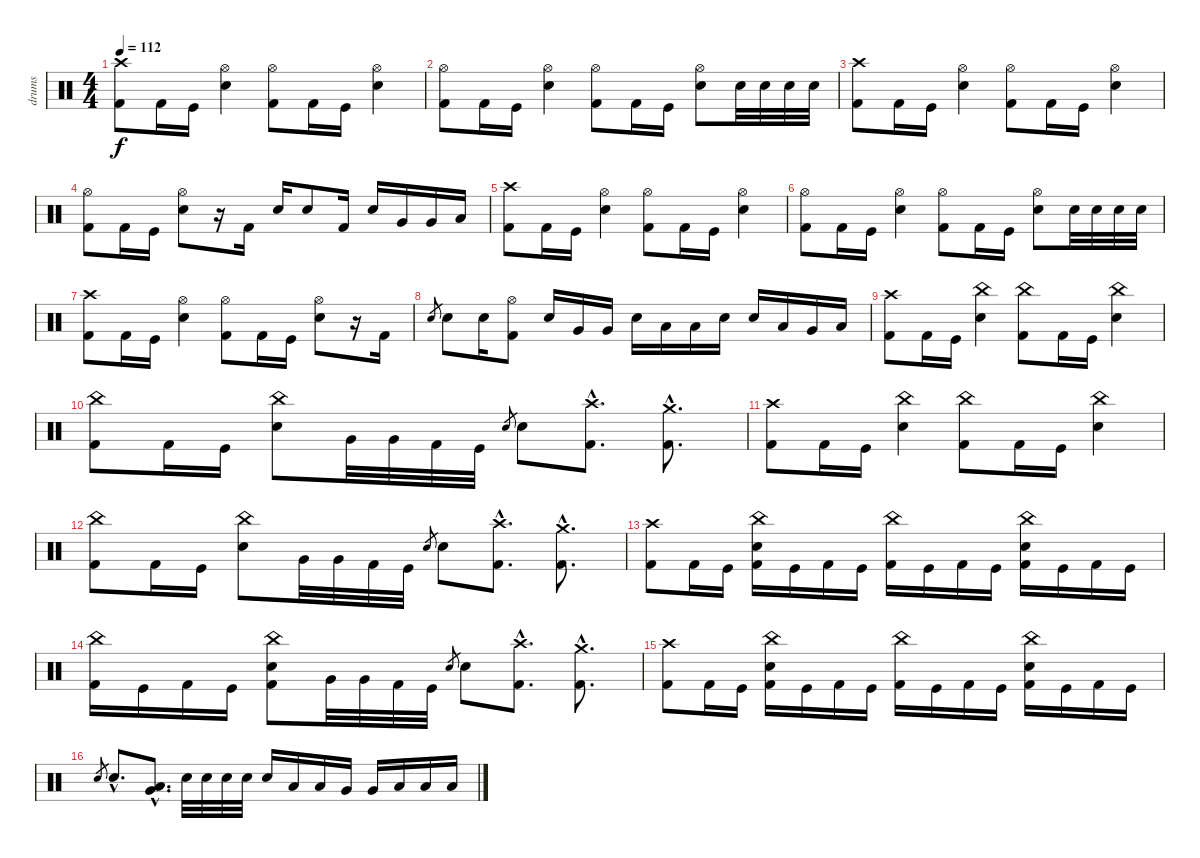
\track ("drums" "drums") {instrument percussion}
\staff {score}
\articulation defaults
\ts (4 4)
\tempo 112
\clef neutral
\ks c
("Crash high (hit)" "Kick (hit) 2").8{dy f} "Kick (hit) 2".16 "Kick (hit)".16 ("Hi-Hat (open)" "Electric Snare (hit)").4 ("Hi-Hat (open)" "Kick (hit) 2").8 "Kick (hit) 2".16 "Kick (hit)".16 ("Hi-Hat (open)" "Electric Snare (hit)").4 |
("Hi-Hat (open)" "Kick (hit) 2").8 "Kick (hit) 2".16 "Kick (hit)".16 ("Hi-Hat (open)" "Electric Snare (hit)").4 ("Hi-Hat (open)" "Kick (hit) 2").8 "Kick (hit) 2".16 "Kick (hit)".16 ("Hi-Hat (open)" "Electric Snare (hit)").8 "Electric Snare (hit)".32 "Electric Snare (hit)".32 "Electric Snare (hit)".32 "Electric Snare (hit)".32 |
("Crash high (hit)" "Kick (hit) 2").8 "Kick (hit) 2".16 "Kick (hit)".16 ("Hi-Hat (open)" "Electric Snare (hit)").4 ("Hi-Hat (open)" "Kick (hit) 2").8 "Kick (hit) 2".16 "Kick (hit)".16 ("Hi-Hat (open)" "Electric Snare (hit)").4 |
("Hi-Hat (open)" "Kick (hit) 2").8 "Kick (hit) 2".16 "Kick (hit)".16 ("Hi-Hat (open)" "Electric Snare (hit)").8 r.16 "Kick (hit) 2".16 "Electric Snare (hit)".16 "Electric Snare (hit)".8 "Kick (hit) 2".16 "Electric Snare (hit)".16 "Very Low Tom (hit)".16 "Very Low Tom (hit)".16 "Low Floor Tom (hit)".16 |
("Crash high (hit)" "Kick (hit) 2").8 "Kick (hit) 2".16 "Kick (hit)".16 ("Hi-Hat (open)" "Electric Snare (hit)").4 ("Hi-Hat (open)" "Kick (hit) 2").8 "Kick (hit) 2".16 "Kick (hit)".16 ("Hi-Hat (open)" "Electric Snare (hit)").4 |
("Hi-Hat (open)" "Kick (hit) 2").8 "Kick (hit) 2".16 "Kick (hit)".16 ("Hi-Hat (open)" "Electric Snare (hit)").4 ("Hi-Hat (open)" "Kick (hit) 2").8 "Kick (hit) 2".16 "Kick (hit)".16 ("Hi-Hat (open)" "Electric Snare (hit)").8 "Electric Snare (hit)".32 "Electric Snare (hit)".32 "Electric Snare (hit)".32 "Electric Snare (hit)".32 |
("Crash high (hit)" "Kick (hit) 2").8 "Kick (hit) 2".16 "Kick (hit)".16 ("Hi-Hat (open)" "Electric Snare (hit)").4 ("Hi-Hat (open)" "Kick (hit) 2").8 "Kick (hit) 2".16 "Kick (hit)".16 ("Hi-Hat (open)" "Electric Snare (hit)").8 r.16 "Kick (hit) 2".16 |
"Electric Snare (hit)".8{gr} "Electric Snare (hit)".8 "Electric Snare (hit)".16 ("Hi-Hat (open)" "Kick (hit) 2").8 "Electric Snare (hit)".16 "Very Low Tom (hit)".16 "Very Low Tom (hit)".16 "Electric Snare (hit)".16 "Low Tom (hit)".16 "Low Tom (hit)".16 "Electric Snare (hit)".16 "Electric Snare (hit)".16 "Low Tom (hit)".16 "Very Low Tom (hit)".16 "Low Floor Tom (hit)".16 |
("Crash high (hit)" "Kick (hit) 2").8 "Kick (hit) 2".16 "Kick (hit)".16 ("China (hit)" "Electric Snare (hit)").4 ("China (hit)" "Kick (hit) 2").8 "Kick (hit) 2".16 "Kick (hit)".16 ("China (hit)" "Electric Snare (hit)").4 |
("China (hit)" "Kick (hit) 2").8 "Kick (hit) 2".16 "Kick (hit)".16 ("China (hit)" "Electric Snare (hit)").8 "Very Low Tom (hit)".32 "Very Low Tom (hit)".32 "Kick (hit) 2".32 "Kick (hit)".32 "Electric Snare (hit)".8{gr} "Electric Snare (hit)".8 ("Crash high (hit)"{hac} "Kick (hit) 2"{hac}).8{d} ("Crash medium (hit)"{hac} "Kick (hit) 2"{hac}).8{d} |
("Crash high (hit)" "Kick (hit) 2").8 "Kick (hit) 2".16 "Kick (hit)".16 ("China (hit)" "Electric Snare (hit)").4 ("China (hit)" "Kick (hit) 2").8 "Kick (hit) 2".16 "Kick (hit)".16 ("China (hit)" "Electric Snare (hit)").4 |
("China (hit)" "Kick (hit) 2").8 "Kick (hit) 2".16 "Kick (hit)".16 ("China (hit)" "Electric Snare (hit)").8 "Very Low Tom (hit)".32 "Very Low Tom (hit)".32 "Kick (hit) 2".32 "Kick (hit)".32 "Electric Snare (hit)".8{gr} "Electric Snare (hit)".8 ("Crash high (hit)"{hac} "Kick (hit) 2"{hac}).8{d} ("Crash medium (hit)"{hac} "Kick (hit) 2"{hac}).8{d} |
("Crash high (hit)" "Kick (hit) 2").8 "Kick (hit) 2".16 "Kick (hit)".16 ("China (hit)" "Electric Snare (hit)" "Kick (hit) 2").16 "Kick (hit)".16 "Kick (hit) 2".16 "Kick (hit)".16 ("China (hit)" "Kick (hit) 2").16 "Kick (hit)".16 "Kick (hit) 2".16 "Kick (hit)".16 ("China (hit)" "Electric Snare (hit)" "Kick (hit) 2").16 "Kick (hit)".16 "Kick (hit) 2".16 "Kick (hit)".16 |
("China (hit)" "Kick (hit) 2").16 "Kick (hit)".16 "Kick (hit) 2".16 "Kick (hit)".16 ("China (hit)" "Electric Snare (hit)" "Kick (hit) 2").8 "Very Low Tom (hit)".32 "Very Low Tom (hit)".32 "Kick (hit) 2".32 "Kick (hit)".32 "Electric Snare (hit)".8{gr} "Electric Snare (hit)".8 ("Crash high (hit)"{hac} "Kick (hit) 2"{hac}).8{d} ("Crash medium (hit)"{hac} "Kick (hit) 2"{hac}).8{d} |
("Crash high (hit)" "Kick (hit) 2").8 "Kick (hit) 2".16 "Kick (hit)".16 ("China (hit)" "Electric Snare (hit)" "Kick (hit) 2").16 "Kick (hit)".16 "Kick (hit) 2".16 "Kick (hit)".16 ("China (hit)" "Kick (hit) 2").16 "Kick (hit)".16 "Kick (hit) 2".16 "Kick (hit)".16 ("China (hit)" "Electric Snare (hit)" "Kick (hit) 2").16 "Kick (hit)".16 "Kick (hit) 2".16 "Kick (hit)".16 |
"Electric Snare (hit)".8{gr} "Electric Snare (hit)"{hac}.8{d} ("Very Low Tom (hit)"{hac} "Low Floor Tom (hit)"{hac}).8{d} "Electric Snare (hit)".32 "Electric Snare (hit)".32 "Electric Snare (hit)".32 "Electric Snare (hit)".32 "Electric Snare (hit)".16 "Low Tom (hit)".16 "Low Tom (hit)".16 "Very Low Tom (hit)".16 "Very Low Tom (hit)".16 "Low Floor Tom (hit)".16 "Low Floor Tom (hit)".16 "Low Floor Tom (hit)".16
